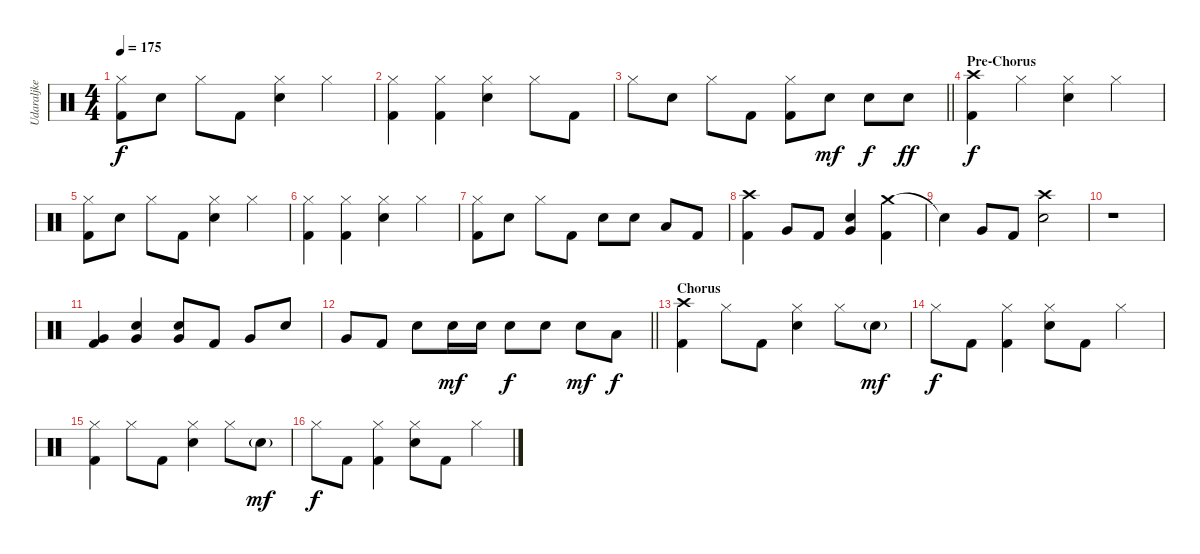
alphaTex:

\track ("Udaraljke" "Udaraljke") {instrument percussion}
\staff {score}
\articulation defaults
\ts (4 4)
\tempo 175
\clef neutral
\ks c
("Hi-Hat (closed)" "Kick (hit) 2").8{dy f} "Electric Snare (hit)".8 "Hi-Hat (closed)".8 "Kick (hit) 2".8 ("Hi-Hat (closed)" "Electric Snare (hit)").4 "Hi-Hat (closed)".4 |
("Hi-Hat (closed)" "Kick (hit) 2").4 ("Hi-Hat (closed)" "Kick (hit) 2").4 ("Hi-Hat (closed)" "Electric Snare (hit)").4 "Hi-Hat (closed)".8 "Kick (hit) 2".8 |
\barLineRight lightlight "Hi-Hat (closed)".8 "Electric Snare (hit)".8 "Hi-Hat (closed)".8 "Kick (hit) 2".8
("Hi-Hat (closed)" "Kick (hit) 2").8 "Electric Snare (hit)".8{dy mf} "Electric Snare (hit)".8{dy f} "Electric Snare (hit)".8{dy ff} |
\section ("" "Pre-Chorus")
("Crash high (hit)" "Kick (hit) 2").4{dy f} "Hi-Hat (closed)".4 ("Hi-Hat (closed)" "Electric Snare (hit)").4 "Hi-Hat (closed)".4 |
("Hi-Hat (closed)" "Kick (hit) 2").8 "Electric Snare (hit)".8 "Hi-Hat (closed)".8 "Kick (hit) 2".8 ("Hi-Hat (closed)" "Electric Snare (hit)").4 "Hi-Hat (closed)".4 |
("Hi-Hat (closed)" "Kick (hit) 2").4 ("Hi-Hat (closed)" "Kick (hit) 2").4 ("Hi-Hat (closed)" "Electric Snare (hit)").4 "Hi-Hat (closed)".4 |
("Hi-Hat (closed)" "Kick (hit) 2").8 "Electric Snare (hit)".8 "Hi-Hat (closed)".8 "Kick (hit) 2".8 "Electric Snare (hit)".8 "Electric Snare (hit)".8 "Low Tom (hit)".8 "Kick (hit) 2".8 |
("Crash high (hit)" "Kick (hit) 2").4 "Very Low Tom (hit)".8 "Kick (hit) 2".8 ("Very Low Tom (hit)" "Electric Snare (hit)").4 ("Crash medium (hit)" "Kick (hit) 2").4 |
"Snare (hit)"{t}.4 "Very Low Tom (hit)".8 "Kick (hit) 2".8 ("Crash high (hit)" "Electric Snare (hit)").2 |
r.1 |
("Very Low Tom (hit)" "Kick (hit) 2").4 ("Very Low Tom (hit)" "Electric Snare (hit)").4 ("Very Low Tom (hit)" "Electric Snare (hit)").8 "Kick (hit) 2".8 "Very Low Tom (hit)".8 "Electric Snare (hit)".8 |
\barLineRight lightlight "Very Low Tom (hit)".8 "Kick (hit) 2".8 "Electric Snare (hit)".8 "Electric Snare (hit)".16{dy mf} "Electric Snare (hit)".16 "Electric Snare (hit)".8{dy f} "Electric Snare (hit)".8 "Electric Snare (hit)".8{dy mf} "Low Tom (hit)".8{dy f}
|
\section ("" "Chorus")
("Crash high (hit)" "Kick (hit) 2").4 "Hi-Hat (closed)".8 "Kick (hit) 2".8 ("Hi-Hat (closed)" "Electric Snare (hit)").4 "Hi-Hat (closed)".8 "Electric Snare (hit)"{g}.8{dy mf} |
"Hi-Hat (closed)".8{dy f} "Kick (hit) 2".8 ("Hi-Hat (closed)" "Kick (hit) 2").4 ("Hi-Hat (closed)" "Electric Snare (hit)").8 "Kick (hit) 2".8 "Hi-Hat (closed)".4 |
("Hi-Hat (closed)" "Kick (hit) 2").4 "Hi-Hat (closed)".8 "Kick (hit) 2".8 ("Hi-Hat (closed)" "Electric Snare (hit)").4 "Hi-Hat (closed)".8 "Electric Snare (hit)"{g}.8{dy mf} |
"Hi-Hat (closed)".8{dy f} "Kick (hit) 2".8 ("Hi-Hat (closed)" "Kick (hit) 2").4 ("Hi-Hat (closed)" "Electric Snare (hit)").8 "Kick (hit) 2".8 "Hi-Hat (closed)".4
